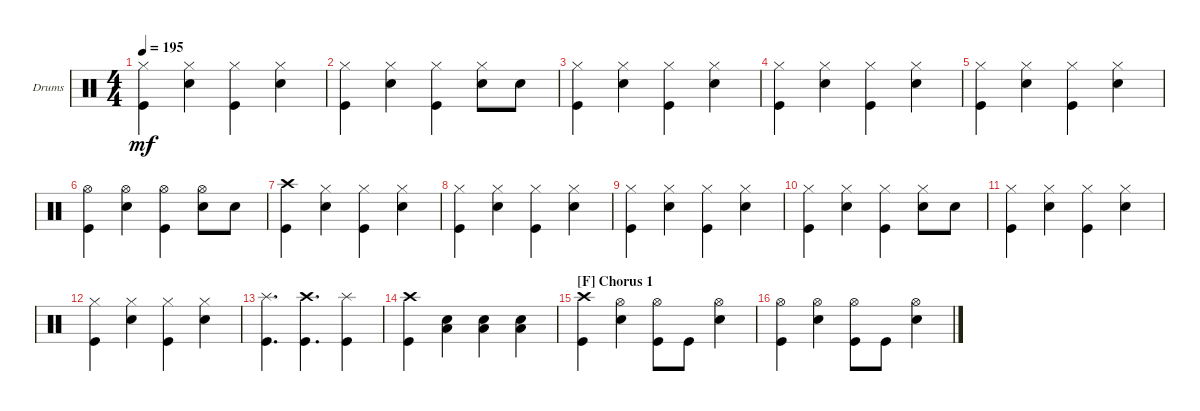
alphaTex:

\defaultSystemsLayout 4
\bracketExtendMode groupsimilarinstruments
\firstSystemTrackNameOrientation horizontal
\otherSystemsTrackNameOrientation horizontal
\track ("Drumkit" "Drums") {instrument percussion}
\staff {score}
\articulation defaults
\ts (4 4)
\tempo 195
\clef neutral
\ks c
("Kick (hit)" "Hi-Hat (closed)").4{dy mf} ("Snare (hit) 2" "Hi-Hat (closed)").4 ("Kick (hit)" "Hi-Hat (closed)").4 ("Snare (hit) 2" "Hi-Hat (closed)").4 |
("Kick (hit)" "Hi-Hat (closed)").4 ("Snare (hit) 2" "Hi-Hat (closed)").4 ("Kick (hit)" "Hi-Hat (closed)").4 ("Snare (hit) 2" "Hi-Hat (closed)").8 "Snare (hit) 2".8 |
("Kick (hit)" "Hi-Hat (closed)").4 ("Snare (hit) 2" "Hi-Hat (closed)").4 ("Kick (hit)" "Hi-Hat (closed)").4 ("Snare (hit) 2" "Hi-Hat (closed)").4 |
("Kick (hit)" "Hi-Hat (closed)").4 ("Snare (hit) 2" "Hi-Hat (closed)").4 ("Kick (hit)" "Hi-Hat (closed)").4 ("Snare (hit) 2" "Hi-Hat (closed)").4 |
("Kick (hit)" "Hi-Hat (closed)").4 ("Snare (hit) 2" "Hi-Hat (closed)").4 ("Kick (hit)" "Hi-Hat (closed)").4 ("Snare (hit) 2" "Hi-Hat (closed)").4 |
("Kick (hit)" "Hi-Hat (open)").4 ("Snare (hit) 2" "Hi-Hat (open)").4 ("Kick (hit)" "Hi-Hat (open)").4 ("Snare (hit) 2" "Hi-Hat (open)").8 "Snare (hit) 2".8 |
("Crash high (hit)" "Kick (hit)").4 ("Snare (hit) 2" "Hi-Hat (closed)").4 ("Kick (hit)" "Hi-Hat (closed)").4 ("Snare (hit) 2" "Hi-Hat (closed)").4 |
("Kick (hit)" "Hi-Hat (closed)").4 ("Snare (hit) 2" "Hi-Hat (closed)").4 ("Kick (hit)" "Hi-Hat (closed)").4 ("Snare (hit) 2" "Hi-Hat (closed)").4 |
("Kick (hit)" "Hi-Hat (closed)").4 ("Snare (hit) 2" "Hi-Hat (closed)").4 ("Kick (hit)" "Hi-Hat (closed)").4 ("Snare (hit) 2" "Hi-Hat (closed)").4 |
("Kick (hit)" "Hi-Hat (closed)").4 ("Snare (hit) 2" "Hi-Hat (closed)").4 ("Kick (hit)" "Hi-Hat (closed)").4 ("Snare (hit) 2" "Hi-Hat (closed)").8 "Snare (hit) 2".8 |
("Kick (hit)" "Hi-Hat (closed)").4 ("Snare (hit) 2" "Hi-Hat (closed)").4 ("Kick (hit)" "Hi-Hat (closed)").4 ("Snare (hit) 2" "Hi-Hat (closed)").4 |
("Kick (hit)" "Hi-Hat (closed)").4 ("Snare (hit) 2" "Hi-Hat (closed)").4 ("Kick (hit)" "Hi-Hat (closed)").4 ("Snare (hit) 2" "Hi-Hat (closed)").4 |
("Kick (hit)" "Splash (hit)").4{d} ("Kick (hit)" "Crash high (hit)").4{d} ("Kick (hit)" "Splash (hit)").4 |
("Crash high (hit)" "Kick (hit)").4 ("Low Tom (hit)" "Snare (hit) 2").4 ("Low Tom (hit)" "Snare (hit) 2").4 ("Low Tom (hit)" "Snare (hit) 2").4 |
\section ("F" "Chorus 1")
("Kick (hit)" "Crash high (hit)").4 ("Snare (hit) 2" "Hi-Hat (open)").4 ("Kick (hit)" "Hi-Hat (open)").8 "Kick (hit)".8 ("Snare (hit) 2" "Hi-Hat (open)").4 |
("Kick (hit)" "Hi-Hat (open)").4 ("Snare (hit) 2" "Hi-Hat (open)").4 ("Kick (hit)" "Hi-Hat (open)").8 "Kick (hit)".8 ("Snare (hit) 2" "Hi-Hat (open)").4
